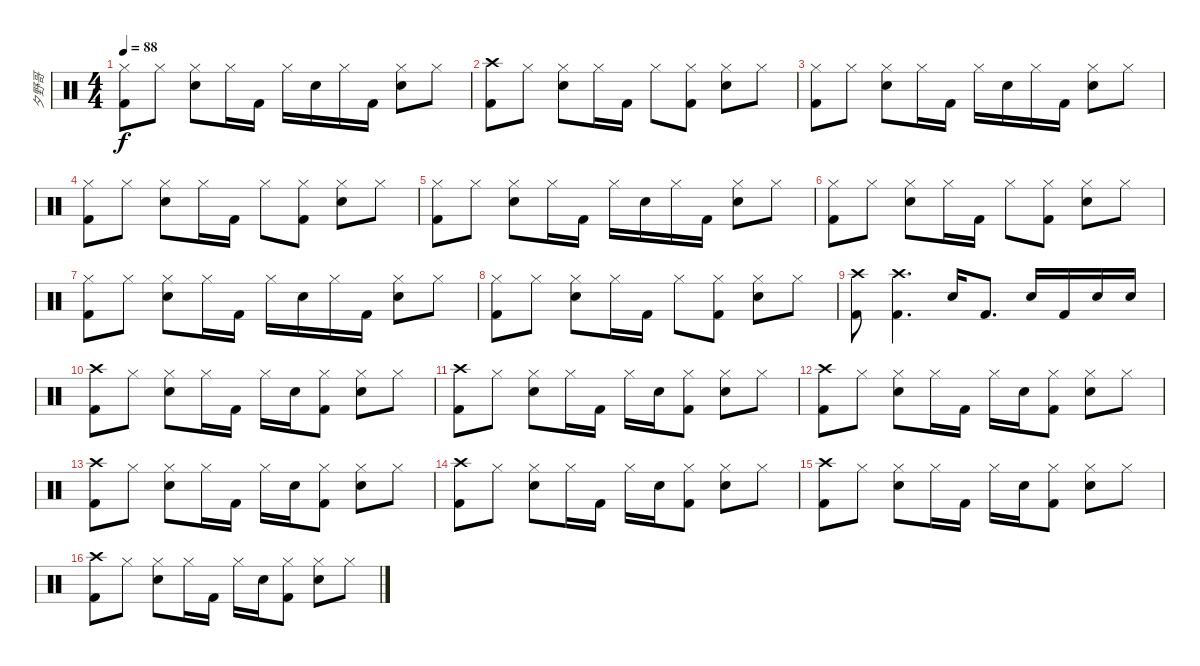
\track ("夕野哥" "夕野哥") {instrument percussion}
\staff {score}
\articulation defaults
\ts (4 4)
\tempo 88
\clef neutral
\ks c
("Hi-Hat (closed)" "Kick (hit) 2").8{dy f} "Hi-Hat (closed)".8 ("Hi-Hat (closed)" "Electric Snare (hit)").8 "Hi-Hat (closed)".16 "Kick (hit) 2".16 "Hi-Hat (closed)".16 "Electric Snare (hit)".16 "Hi-Hat (closed)".16 "Kick (hit) 2".16 ("Hi-Hat (closed)" "Electric Snare (hit)").8 "Hi-Hat (closed)".8 |
("Crash high (hit)" "Kick (hit) 2").8 "Hi-Hat (closed)".8 ("Hi-Hat (closed)" "Electric Snare (hit)").8 "Hi-Hat (closed)".16 "Kick (hit) 2".16 "Hi-Hat (closed)".8 ("Hi-Hat (closed)" "Kick (hit) 2").8 ("Hi-Hat (closed)" "Electric Snare (hit)").8 "Hi-Hat (closed)".8 |
("Hi-Hat (closed)" "Kick (hit) 2").8 "Hi-Hat (closed)".8 ("Hi-Hat (closed)" "Electric Snare (hit)").8 "Hi-Hat (closed)".16 "Kick (hit) 2".16 "Hi-Hat (closed)".16 "Electric Snare (hit)".16 "Hi-Hat (closed)".16 "Kick (hit) 2".16 ("Hi-Hat (closed)" "Electric Snare (hit)").8 "Hi-Hat (closed)".8 |
("Hi-Hat (closed)" "Kick (hit) 2").8 "Hi-Hat (closed)".8 ("Hi-Hat (closed)" "Electric Snare (hit)").8 "Hi-Hat (closed)".16 "Kick (hit) 2".16 "Hi-Hat (closed)".8 ("Hi-Hat (closed)" "Kick (hit) 2").8 ("Hi-Hat (closed)" "Electric Snare (hit)").8 "Hi-Hat (closed)".8 |
("Hi-Hat (closed)" "Kick (hit) 2").8 "Hi-Hat (closed)".8 ("Hi-Hat (closed)" "Electric Snare (hit)").8 "Hi-Hat (closed)".16 "Kick (hit) 2".16 "Hi-Hat (closed)".16 "Electric Snare (hit)".16 "Hi-Hat (closed)".16 "Kick (hit) 2".16 ("Hi-Hat (closed)" "Electric Snare (hit)").8 "Hi-Hat (closed)".8 |
("Hi-Hat (closed)" "Kick (hit) 2").8 "Hi-Hat (closed)".8 ("Hi-Hat (closed)" "Electric Snare (hit)").8 "Hi-Hat (closed)".16 "Kick (hit) 2".16 "Hi-Hat (closed)".8 ("Hi-Hat (closed)" "Kick (hit) 2").8 ("Hi-Hat (closed)" "Electric Snare (hit)").8 "Hi-Hat (closed)".8 |
("Hi-Hat (closed)" "Kick (hit) 2").8 "Hi-Hat (closed)".8 ("Hi-Hat (closed)" "Electric Snare (hit)").8 "Hi-Hat (closed)".16 "Kick (hit) 2".16 "Hi-Hat (closed)".16 "Electric Snare (hit)".16 "Hi-Hat (closed)".16 "Kick (hit) 2".16 ("Hi-Hat (closed)" "Electric Snare (hit)").8 "Hi-Hat (closed)".8 |
("Hi-Hat (closed)" "Kick (hit) 2").8 "Hi-Hat (closed)".8 ("Hi-Hat (closed)" "Electric Snare (hit)").8 "Hi-Hat (closed)".16 "Kick (hit) 2".16 "Hi-Hat (closed)".8 ("Hi-Hat (closed)" "Kick (hit) 2").8 ("Hi-Hat (closed)" "Electric Snare (hit)").8 "Hi-Hat (closed)".8 |
("Crash high (hit)" "Kick (hit) 2").8 ("Crash high (hit)" "Kick (hit) 2").4{d} "Electric Snare (hit)".16 "Kick (hit) 2".8{d} "Electric Snare (hit)".16 "Kick (hit) 2".16 "Electric Snare (hit)".16 "Electric Snare (hit)".16 |
("Crash high (hit)" "Kick (hit) 2").8 "Hi-Hat (closed)".8 ("Hi-Hat (closed)" "Electric Snare (hit)").8 "Hi-Hat (closed)".16 "Kick (hit) 2".16 "Hi-Hat (closed)".16 "Electric Snare (hit)".16 ("Hi-Hat (closed)" "Kick (hit) 2").8 ("Hi-Hat (closed)" "Electric Snare (hit)").8 "Hi-Hat (closed)".8 |
("Crash high (hit)" "Kick (hit) 2").8 "Hi-Hat (closed)".8 ("Hi-Hat (closed)" "Electric Snare (hit)").8 "Hi-Hat (closed)".16 "Kick (hit) 2".16 "Hi-Hat (closed)".16 "Electric Snare (hit)".16 ("Hi-Hat (closed)" "Kick (hit) 2").8 ("Hi-Hat (closed)" "Electric Snare (hit)").8 "Hi-Hat (closed)".8 |
("Crash high (hit)" "Kick (hit) 2").8 "Hi-Hat (closed)".8 ("Hi-Hat (closed)" "Electric Snare (hit)").8 "Hi-Hat (closed)".16 "Kick (hit) 2".16 "Hi-Hat (closed)".16 "Electric Snare (hit)".16 ("Hi-Hat (closed)" "Kick (hit) 2").8 ("Hi-Hat (closed)" "Electric Snare (hit)").8 "Hi-Hat (closed)".8 |
("Crash high (hit)" "Kick (hit) 2").8 "Hi-Hat (closed)".8 ("Hi-Hat (closed)" "Electric Snare (hit)").8 "Hi-Hat (closed)".16 "Kick (hit) 2".16 "Hi-Hat (closed)".16 "Electric Snare (hit)".16 ("Hi-Hat (closed)" "Kick (hit) 2").8 ("Hi-Hat (closed)" "Electric Snare (hit)").8 "Hi-Hat (closed)".8 |
("Crash high (hit)" "Kick (hit) 2").8 "Hi-Hat (closed)".8 ("Hi-Hat (closed)" "Electric Snare (hit)").8 "Hi-Hat (closed)".16 "Kick (hit) 2".16 "Hi-Hat (closed)".16 "Electric Snare (hit)".16 ("Hi-Hat (closed)" "Kick (hit) 2").8 ("Hi-Hat (closed)" "Electric Snare (hit)").8 "Hi-Hat (closed)".8 |
("Crash high (hit)" "Kick (hit) 2").8 "Hi-Hat (closed)".8 ("Hi-Hat (closed)" "Electric Snare (hit)").8 "Hi-Hat (closed)".16 "Kick (hit) 2".16 "Hi-Hat (closed)".16 "Electric Snare (hit)".16 ("Hi-Hat (closed)" "Kick (hit) 2").8 ("Hi-Hat (closed)" "Electric Snare (hit)").8 "Hi-Hat (closed)".8 |
("Crash high (hit)" "Kick (hit) 2").8 "Hi-Hat (closed)".8 ("Hi-Hat (closed)" "Electric Snare (hit)").8 "Hi-Hat (closed)".16 "Kick (hit) 2".16 "Hi-Hat (closed)".16 "Electric Snare (hit)".16 ("Hi-Hat (closed)" "Kick (hit) 2").8 ("Hi-Hat (closed)" "Electric Snare (hit)").8 "Hi-Hat (closed)".8
